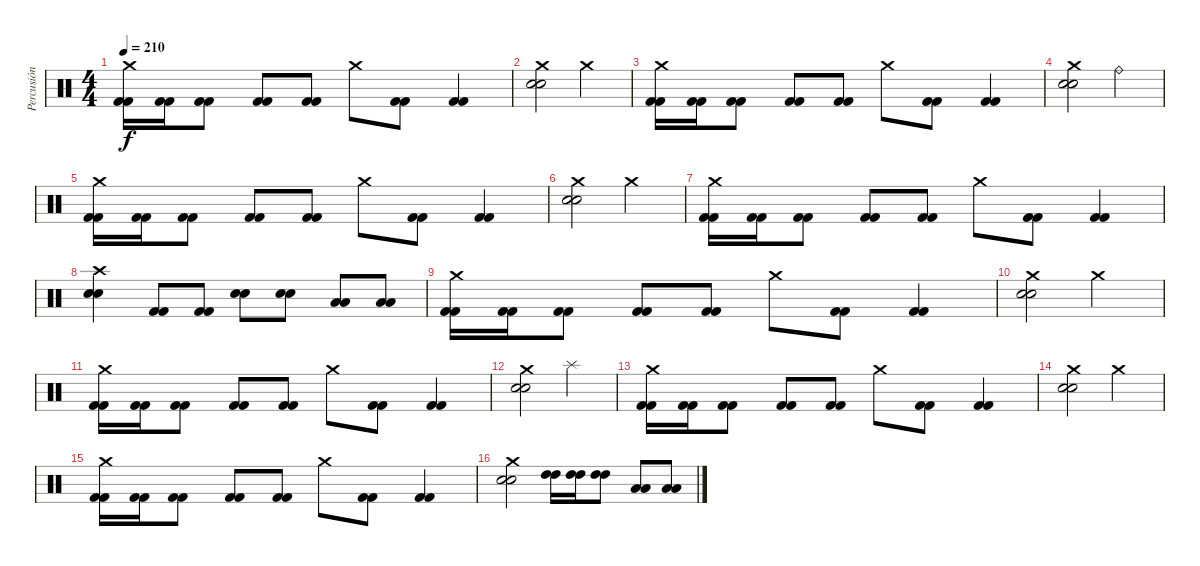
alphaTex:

\track ("Percusión" "Percusión") {instrument percussion}
\staff {score}
\articulation defaults
\ts (4 4)
\tempo 210
\clef neutral
\ks c
("Kick (hit) 2" "Kick (hit) 2" "Crash medium (hit)").16{dy f} ("Kick (hit) 2" "Kick (hit) 2").16 ("Kick (hit) 2" "Kick (hit) 2").8 ("Kick (hit) 2" "Kick (hit) 2").8 ("Kick (hit) 2" "Kick (hit) 2").8 "Crash medium (hit)".8 ("Kick (hit) 2" "Kick (hit) 2").8 ("Kick (hit) 2" "Kick (hit) 2").4 |
("Electric Snare (hit)" "Electric Snare (hit)" "Crash medium (hit)").2 "Crash medium (hit)".2 |
("Kick (hit) 2" "Kick (hit) 2" "Crash medium (hit)").16 ("Kick (hit) 2" "Kick (hit) 2").16 ("Kick (hit) 2" "Kick (hit) 2").8 ("Kick (hit) 2" "Kick (hit) 2").8 ("Kick (hit) 2" "Kick (hit) 2").8 "Crash medium (hit)".8 ("Kick (hit) 2" "Kick (hit) 2").8 ("Kick (hit) 2" "Kick (hit) 2").4 |
("Electric Snare (hit)" "Electric Snare (hit)" "Crash medium (hit)").2 "Ride (bell)".2 |
("Kick (hit) 2" "Kick (hit) 2" "Crash medium (hit)").16 ("Kick (hit) 2" "Kick (hit) 2").16 ("Kick (hit) 2" "Kick (hit) 2").8 ("Kick (hit) 2" "Kick (hit) 2").8 ("Kick (hit) 2" "Kick (hit) 2").8 "Crash medium (hit)".8 ("Kick (hit) 2" "Kick (hit) 2").8 ("Kick (hit) 2" "Kick (hit) 2").4 |
("Electric Snare (hit)" "Electric Snare (hit)" "Crash medium (hit)").2 "Crash medium (hit)".2 |
("Kick (hit) 2" "Kick (hit) 2" "Crash medium (hit)").16 ("Kick (hit) 2" "Kick (hit) 2").16 ("Kick (hit) 2" "Kick (hit) 2").8 ("Kick (hit) 2" "Kick (hit) 2").8 ("Kick (hit) 2" "Kick (hit) 2").8 "Crash medium (hit)".8 ("Kick (hit) 2" "Kick (hit) 2").8 ("Kick (hit) 2" "Kick (hit) 2").4 |
("Electric Snare (hit)" "Electric Snare (hit)" "Crash high (hit)").4 ("Kick (hit) 2" "Kick (hit) 2").8 ("Kick (hit) 2" "Kick (hit) 2").8 ("Electric Snare (hit)" "Electric Snare (hit)").8 ("Electric Snare (hit)" "Electric Snare (hit)").8 ("Low Floor Tom (hit)" "Low Floor Tom (hit)").8 ("Low Floor Tom (hit)" "Low Floor Tom (hit)").8 |
("Kick (hit) 2" "Kick (hit) 2" "Crash medium (hit)").16 ("Kick (hit) 2" "Kick (hit) 2").16 ("Kick (hit) 2" "Kick (hit) 2").8 ("Kick (hit) 2" "Kick (hit) 2").8 ("Kick (hit) 2" "Kick (hit) 2").8 "Crash medium (hit)".8 ("Kick (hit) 2" "Kick (hit) 2").8 ("Kick (hit) 2" "Kick (hit) 2").4 |
("Electric Snare (hit)" "Electric Snare (hit)" "Crash medium (hit)").2 "Crash medium (hit)".2 |
("Kick (hit) 2" "Kick (hit) 2" "Crash medium (hit)").16 ("Kick (hit) 2" "Kick (hit) 2").16 ("Kick (hit) 2" "Kick (hit) 2").8 ("Kick (hit) 2" "Kick (hit) 2").8 ("Kick (hit) 2" "Kick (hit) 2").8 "Crash medium (hit)".8 ("Kick (hit) 2" "Kick (hit) 2").8 ("Kick (hit) 2" "Kick (hit) 2").4 |
("Electric Snare (hit)" "Electric Snare (hit)" "Crash medium (hit)").2 "Splash (hit)".2 |
("Kick (hit) 2" "Kick (hit) 2" "Crash medium (hit)").16 ("Kick (hit) 2" "Kick (hit) 2").16 ("Kick (hit) 2" "Kick (hit) 2").8 ("Kick (hit) 2" "Kick (hit) 2").8 ("Kick (hit) 2" "Kick (hit) 2").8 "Crash medium (hit)".8 ("Kick (hit) 2" "Kick (hit) 2").8 ("Kick (hit) 2" "Kick (hit) 2").4 |
("Electric Snare (hit)" "Electric Snare (hit)" "Crash medium (hit)").2 "Crash medium (hit)".2 |
("Kick (hit) 2" "Kick (hit) 2" "Crash medium (hit)").16 ("Kick (hit) 2" "Kick (hit) 2").16 ("Kick (hit) 2" "Kick (hit) 2").8 ("Kick (hit) 2" "Kick (hit) 2").8 ("Kick (hit) 2" "Kick (hit) 2").8 "Crash medium (hit)".8 ("Kick (hit) 2" "Kick (hit) 2").8 ("Kick (hit) 2" "Kick (hit) 2").4 |
("Electric Snare (hit)" "Electric Snare (hit)" "Crash medium (hit)").2 ("High Tom (hit)" "High Tom (hit)").16 ("High Tom (hit)" "High Tom (hit)").16 ("High Tom (hit)" "High Tom (hit)").8 ("Low Tom (hit)" "Low Tom (hit)").8 ("Low Tom (hit)" "Low Tom (hit)").8
